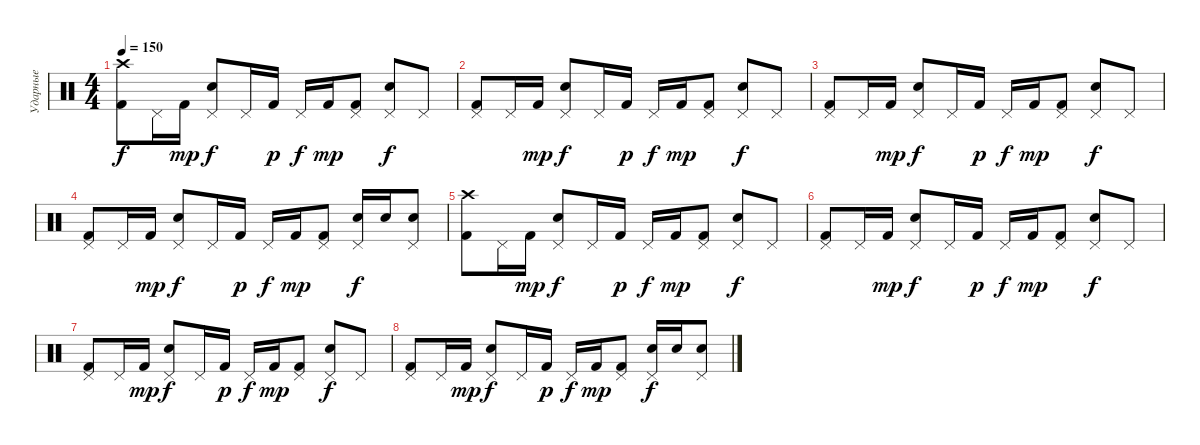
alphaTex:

\track ("Ударные" "Ударные") {instrument percussion}
\staff {score}
\articulation defaults
\ts (4 4)
\tempo 150
\clef neutral
\ks c
("Crash high (hit)" "Kick (hit) 2").8{dy f} "Pedal Hi-Hat (hit)".16 "Kick (hit) 2".16{dy mp} ("Pedal Hi-Hat (hit)" "Snare (hit) 2").8{dy f} "Pedal Hi-Hat (hit)".16 "Kick (hit) 2".16{dy p} "Pedal Hi-Hat (hit)".16{dy f} "Kick (hit) 2".16{dy mp} ("Pedal Hi-Hat (hit)" "Kick (hit) 2").8 ("Pedal Hi-Hat (hit)" "Snare (hit) 2").8{dy f} "Pedal Hi-Hat (hit)".8 |
("Pedal Hi-Hat (hit)" "Kick (hit) 2").8 "Pedal Hi-Hat (hit)".16 "Kick (hit) 2".16{dy mp} ("Pedal Hi-Hat (hit)" "Snare (hit) 2").8{dy f} "Pedal Hi-Hat (hit)".16 "Kick (hit) 2".16{dy p} "Pedal Hi-Hat (hit)".16{dy f} "Kick (hit) 2".16{dy mp} ("Pedal Hi-Hat (hit)" "Kick (hit) 2").8 ("Pedal Hi-Hat (hit)" "Snare (hit) 2").8{dy f} "Pedal Hi-Hat (hit)".8 |
("Pedal Hi-Hat (hit)" "Kick (hit) 2").8 "Pedal Hi-Hat (hit)".16 "Kick (hit) 2".16{dy mp} ("Pedal Hi-Hat (hit)" "Snare (hit) 2").8{dy f} "Pedal Hi-Hat (hit)".16 "Kick (hit) 2".16{dy p} "Pedal Hi-Hat (hit)".16{dy f} "Kick (hit) 2".16{dy mp} ("Pedal Hi-Hat (hit)" "Kick (hit) 2").8 ("Pedal Hi-Hat (hit)" "Snare (hit) 2").8{dy f} "Pedal Hi-Hat (hit)".8 |
("Pedal Hi-Hat (hit)" "Kick (hit) 2").8 "Pedal Hi-Hat (hit)".16 "Kick (hit) 2".16{dy mp} ("Pedal Hi-Hat (hit)" "Snare (hit) 2").8{dy f} "Pedal Hi-Hat (hit)".16 "Kick (hit) 2".16{dy p} "Pedal Hi-Hat (hit)".16{dy f} "Kick (hit) 2".16{dy mp} ("Pedal Hi-Hat (hit)" "Kick (hit) 2").8 ("Pedal Hi-Hat (hit)" "Snare (hit) 2").16{dy f} "Snare (hit) 2".16 ("Pedal Hi-Hat (hit)" "Snare (hit) 2").8 |
("Crash high (hit)" "Kick (hit) 2").8 "Pedal Hi-Hat (hit)".16 "Kick (hit) 2".16{dy mp} ("Pedal Hi-Hat (hit)" "Snare (hit) 2").8{dy f} "Pedal Hi-Hat (hit)".16 "Kick (hit) 2".16{dy p} "Pedal Hi-Hat (hit)".16{dy f} "Kick (hit) 2".16{dy mp} ("Pedal Hi-Hat (hit)" "Kick (hit) 2").8 ("Pedal Hi-Hat (hit)" "Snare (hit) 2").8{dy f} "Pedal Hi-Hat (hit)".8 |
("Pedal Hi-Hat (hit)" "Kick (hit) 2").8 "Pedal Hi-Hat (hit)".16 "Kick (hit) 2".16{dy mp} ("Pedal Hi-Hat (hit)" "Snare (hit) 2").8{dy f} "Pedal Hi-Hat (hit)".16 "Kick (hit) 2".16{dy p} "Pedal Hi-Hat (hit)".16{dy f} "Kick (hit) 2".16{dy mp} ("Pedal Hi-Hat (hit)" "Kick (hit) 2").8 ("Pedal Hi-Hat (hit)" "Snare (hit) 2").8{dy f} "Pedal Hi-Hat (hit)".8 |
("Pedal Hi-Hat (hit)" "Kick (hit) 2").8 "Pedal Hi-Hat (hit)".16 "Kick (hit) 2".16{dy mp} ("Pedal Hi-Hat (hit)" "Snare (hit) 2").8{dy f} "Pedal Hi-Hat (hit)".16 "Kick (hit) 2".16{dy p} "Pedal Hi-Hat (hit)".16{dy f} "Kick (hit) 2".16{dy mp} ("Pedal Hi-Hat (hit)" "Kick (hit) 2").8 ("Pedal Hi-Hat (hit)" "Snare (hit) 2").8{dy f} "Pedal Hi-Hat (hit)".8 |
("Pedal Hi-Hat (hit)" "Kick (hit) 2").8 "Pedal Hi-Hat (hit)".16 "Kick (hit) 2".16{dy mp} ("Pedal Hi-Hat (hit)" "Snare (hit) 2").8{dy f} "Pedal Hi-Hat (hit)".16 "Kick (hit) 2".16{dy p} "Pedal Hi-Hat (hit)".16{dy f} "Kick (hit) 2".16{dy mp} ("Pedal Hi-Hat (hit)" "Kick (hit) 2").8 ("Pedal Hi-Hat (hit)" "Snare (hit) 2").16{dy f} "Snare (hit) 2".16 ("Pedal Hi-Hat (hit)" "Snare (hit) 2").8
